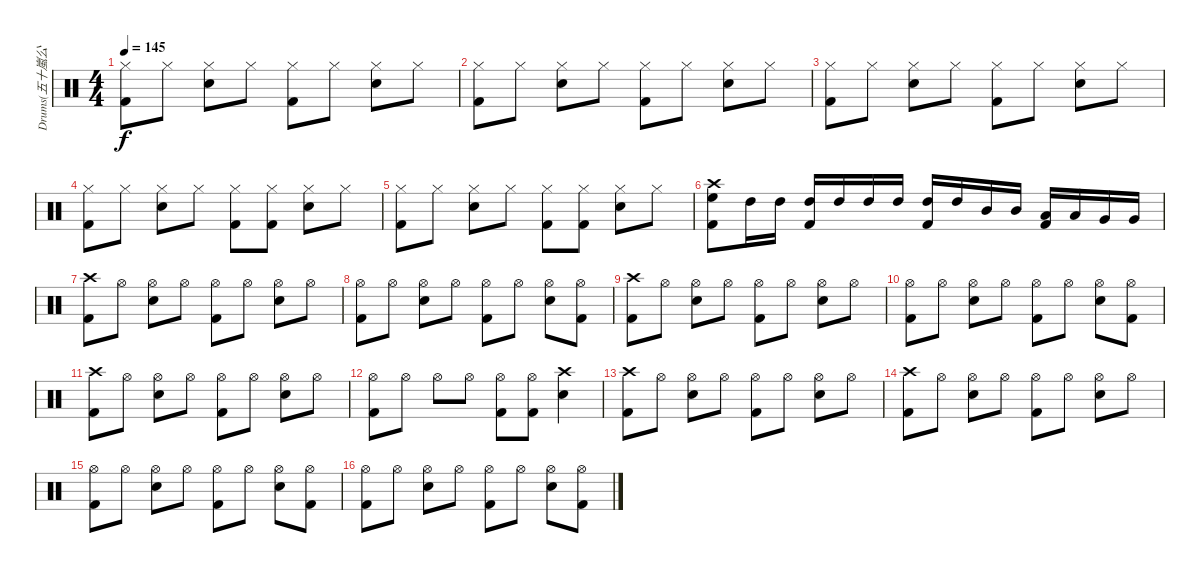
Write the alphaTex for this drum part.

\track ("Drums(五十嵐公太)" "Drums(五十嵐公") {instrument percussion}
\staff {score}
\articulation defaults
\ts (4 4)
\tempo 145
\clef neutral
\ks c
("Hi-Hat (closed)" "Kick (hit) 2").8{dy f} "Hi-Hat (closed)".8 ("Hi-Hat (closed)" "Snare (hit) 2").8 "Hi-Hat (closed)".8 ("Hi-Hat (closed)" "Kick (hit) 2").8 "Hi-Hat (closed)".8 ("Hi-Hat (closed)" "Snare (hit) 2").8 "Hi-Hat (closed)".8 |
("Hi-Hat (closed)" "Kick (hit) 2").8 "Hi-Hat (closed)".8 ("Hi-Hat (closed)" "Snare (hit) 2").8 "Hi-Hat (closed)".8 ("Hi-Hat (closed)" "Kick (hit) 2").8 "Hi-Hat (closed)".8 ("Hi-Hat (closed)" "Snare (hit) 2").8 "Hi-Hat (closed)".8 |
("Hi-Hat (closed)" "Kick (hit) 2").8 "Hi-Hat (closed)".8 ("Hi-Hat (closed)" "Snare (hit) 2").8 "Hi-Hat (closed)".8 ("Hi-Hat (closed)" "Kick (hit) 2").8 "Hi-Hat (closed)".8 ("Hi-Hat (closed)" "Snare (hit) 2").8 "Hi-Hat (closed)".8 |
("Hi-Hat (closed)" "Kick (hit) 2").8 "Hi-Hat (closed)".8 ("Hi-Hat (closed)" "Snare (hit) 2").8 "Hi-Hat (closed)".8 ("Hi-Hat (closed)" "Kick (hit) 2").8 ("Hi-Hat (closed)" "Kick (hit) 2").8 ("Hi-Hat (closed)" "Snare (hit) 2").8 "Hi-Hat (closed)".8 |
("Hi-Hat (closed)" "Kick (hit) 2").8 "Hi-Hat (closed)".8 ("Hi-Hat (closed)" "Snare (hit) 2").8 "Hi-Hat (closed)".8 ("Hi-Hat (closed)" "Kick (hit) 2").8 ("Hi-Hat (closed)" "Kick (hit) 2").8 ("Hi-Hat (closed)" "Snare (hit) 2").8 "Hi-Hat (closed)".8 |
("Crash high (hit)" "High Floor Tom (hit)" "Kick (hit) 2").8 "High Tom (hit)".16 "High Tom (hit)".16 ("High Tom (hit)" "Kick (hit) 2").16 "High Tom (hit)".16 "High Tom (hit)".16 "High Tom (hit)".16 ("High Tom (hit)" "Kick (hit) 2").16 "High Tom (hit)".16 "Mid Tom (hit)".16 "Mid Tom (hit)".16 ("Low Tom (hit)" "Kick (hit) 2").16 "Low Tom (hit)".16 "Very Low Tom (hit)".16 "Very Low Tom (hit)".16 |
("Crash high (hit)" "Kick (hit) 2").8 "Hi-Hat (open)".8 ("Hi-Hat (open)" "Snare (hit) 2").8 "Hi-Hat (open)".8 ("Hi-Hat (open)" "Kick (hit) 2").8 "Hi-Hat (open)".8 ("Hi-Hat (open)" "Snare (hit) 2").8 "Hi-Hat (open)".8 |
("Hi-Hat (open)" "Kick (hit) 2").8 "Hi-Hat (open)".8 ("Hi-Hat (open)" "Snare (hit) 2").8 "Hi-Hat (open)".8 ("Hi-Hat (open)" "Kick (hit) 2").8 "Hi-Hat (open)".8 ("Hi-Hat (open)" "Snare (hit) 2").8 ("Hi-Hat (open)" "Kick (hit) 2").8 |
("Crash high (hit)" "Kick (hit) 2").8 "Hi-Hat (open)".8 ("Hi-Hat (open)" "Snare (hit) 2").8 "Hi-Hat (open)".8 ("Hi-Hat (open)" "Kick (hit) 2").8 "Hi-Hat (open)".8 ("Hi-Hat (open)" "Snare (hit) 2").8 "Hi-Hat (open)".8 |
("Hi-Hat (open)" "Kick (hit) 2").8 "Hi-Hat (open)".8 ("Hi-Hat (open)" "Snare (hit) 2").8 "Hi-Hat (open)".8 ("Hi-Hat (open)" "Kick (hit) 2").8 "Hi-Hat (open)".8 ("Hi-Hat (open)" "Snare (hit) 2").8 ("Hi-Hat (open)" "Kick (hit) 2").8 |
("Crash high (hit)" "Kick (hit) 2").8 "Hi-Hat (open)".8 ("Hi-Hat (open)" "Snare (hit) 2").8 "Hi-Hat (open)".8 ("Hi-Hat (open)" "Kick (hit) 2").8 "Hi-Hat (open)".8 ("Hi-Hat (open)" "Snare (hit) 2").8 "Hi-Hat (open)".8 |
("Hi-Hat (open)" "Kick (hit) 2").8 "Hi-Hat (open)".8 "Hi-Hat (open)".8 "Hi-Hat (open)".8 ("Hi-Hat (open)" "Kick (hit) 2").8 ("Hi-Hat (open)" "Kick (hit) 2").8 ("Crash high (hit)" "Snare (hit) 2").4 |
("Crash high (hit)" "Kick (hit) 2").8 "Hi-Hat (open)".8 ("Hi-Hat (open)" "Snare (hit) 2").8 "Hi-Hat (open)".8 ("Hi-Hat (open)" "Kick (hit) 2").8 "Hi-Hat (open)".8 ("Hi-Hat (open)" "Snare (hit) 2").8 "Hi-Hat (open)".8 |
("Crash high (hit)" "Kick (hit) 2").8 "Hi-Hat (open)".8 ("Hi-Hat (open)" "Snare (hit) 2").8 "Hi-Hat (open)".8 ("Hi-Hat (open)" "Kick (hit) 2").8 "Hi-Hat (open)".8 ("Hi-Hat (open)" "Snare (hit) 2").8 "Hi-Hat (open)".8 |
("Hi-Hat (open)" "Kick (hit) 2").8 "Hi-Hat (open)".8 ("Hi-Hat (open)" "Snare (hit) 2").8 "Hi-Hat (open)".8 ("Hi-Hat (open)" "Kick (hit) 2").8 "Hi-Hat (open)".8 ("Hi-Hat (open)" "Snare (hit) 2").8 ("Hi-Hat (open)" "Kick (hit) 2").8 |
("Hi-Hat (open)" "Kick (hit) 2").8 "Hi-Hat (open)".8 ("Hi-Hat (open)" "Snare (hit) 2").8 "Hi-Hat (open)".8 ("Hi-Hat (open)" "Kick (hit) 2").8 "Hi-Hat (open)".8 ("Hi-Hat (open)" "Snare (hit) 2").8 ("Hi-Hat (open)" "Kick (hit) 2").8
